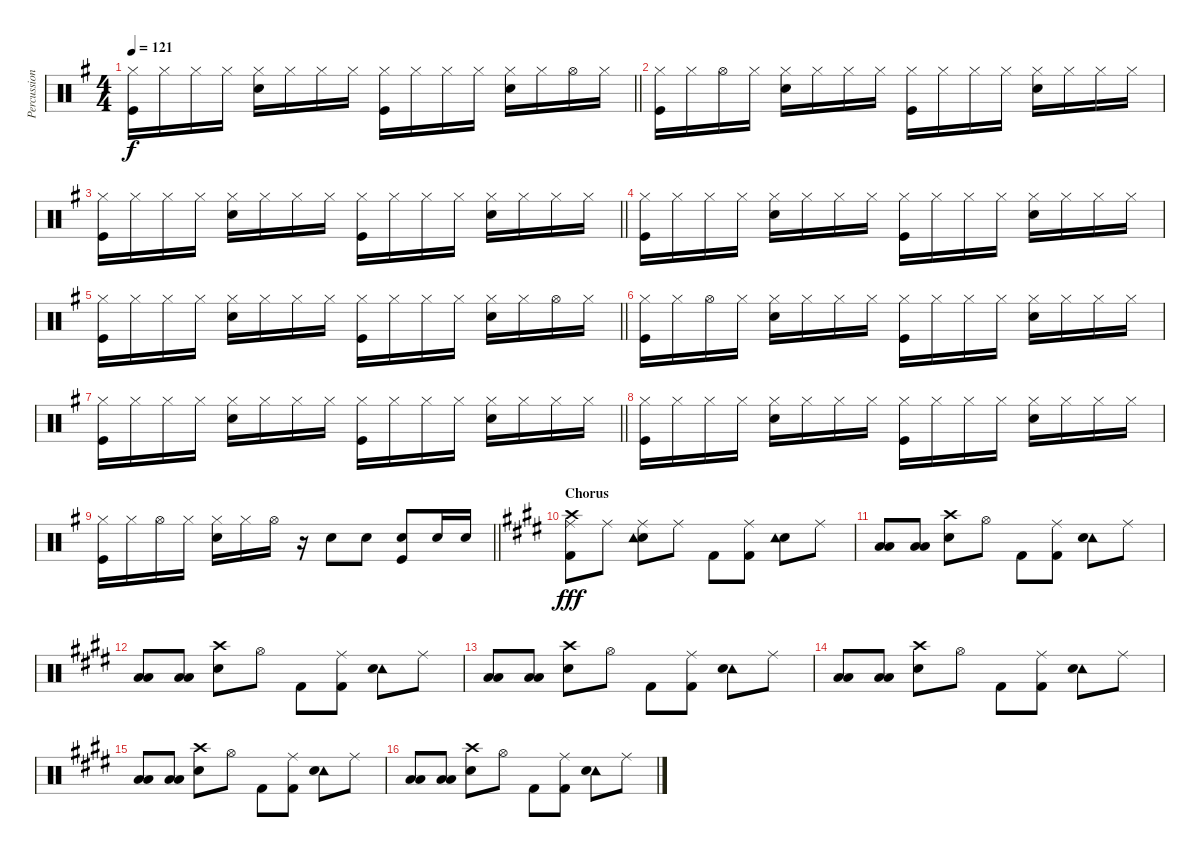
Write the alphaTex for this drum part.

\track ("Percussion" "Percussion") {instrument percussion}
\staff {score}
\articulation defaults
\ts (4 4)
\tempo 121
\clef neutral
\barLineRight lightlight
\ks g
("Hi-Hat (closed)" "Kick (hit)").16{dy f} "Hi-Hat (closed)".16 "Hi-Hat (closed)".16 "Hi-Hat (closed)".16 ("Hi-Hat (closed)" "Snare (hit) 2").16 "Hi-Hat (closed)".16 "Hi-Hat (closed)".16 "Hi-Hat (closed)".16 ("Hi-Hat (closed)" "Kick (hit)").16 "Hi-Hat (closed)".16 "Hi-Hat (closed)".16 "Hi-Hat (closed)".16 ("Hi-Hat (closed)" "Snare (hit) 2").16 "Hi-Hat (closed)".16 "Hi-Hat (open)".16 "Hi-Hat (closed)".16 |
("Hi-Hat (closed)" "Kick (hit)").16 "Hi-Hat (closed)".16 "Hi-Hat (open)".16 "Hi-Hat (closed)".16 ("Hi-Hat (closed)" "Snare (hit) 2").16 "Hi-Hat (closed)".16 "Hi-Hat (closed)".16 "Hi-Hat (closed)".16 ("Hi-Hat (closed)" "Kick (hit)").16 "Hi-Hat (closed)".16 "Hi-Hat (closed)".16 "Hi-Hat (closed)".16 ("Hi-Hat (closed)" "Snare (hit) 2").16 "Hi-Hat (closed)".16 "Hi-Hat (closed)".16 "Hi-Hat (closed)".16 |
\barLineRight lightlight
("Hi-Hat (closed)" "Kick (hit)").16 "Hi-Hat (closed)".16 "Hi-Hat (closed)".16 "Hi-Hat (closed)".16 ("Hi-Hat (closed)" "Snare (hit) 2").16 "Hi-Hat (closed)".16 "Hi-Hat (closed)".16 "Hi-Hat (closed)".16 ("Hi-Hat (closed)" "Kick (hit)").16 "Hi-Hat (closed)".16 "Hi-Hat (closed)".16 "Hi-Hat (closed)".16 ("Hi-Hat (closed)" "Snare (hit) 2").16 "Hi-Hat (closed)".16 "Hi-Hat (closed)".16 "Hi-Hat (closed)".16 |
("Hi-Hat (closed)" "Kick (hit)").16 "Hi-Hat (closed)".16 "Hi-Hat (closed)".16 "Hi-Hat (closed)".16 ("Hi-Hat (closed)" "Snare (hit) 2").16 "Hi-Hat (closed)".16 "Hi-Hat (closed)".16 "Hi-Hat (closed)".16 ("Hi-Hat (closed)" "Kick (hit)").16 "Hi-Hat (closed)".16 "Hi-Hat (closed)".16 "Hi-Hat (closed)".16 ("Hi-Hat (closed)" "Snare (hit) 2").16 "Hi-Hat (closed)".16 "Hi-Hat (closed)".16 "Hi-Hat (closed)".16 |
\barLineRight lightlight
("Hi-Hat (closed)" "Kick (hit)").16 "Hi-Hat (closed)".16 "Hi-Hat (closed)".16 "Hi-Hat (closed)".16 ("Hi-Hat (closed)" "Snare (hit) 2").16 "Hi-Hat (closed)".16 "Hi-Hat (closed)".16 "Hi-Hat (closed)".16 ("Hi-Hat (closed)" "Kick (hit)").16 "Hi-Hat (closed)".16 "Hi-Hat (closed)".16 "Hi-Hat (closed)".16 ("Hi-Hat (closed)" "Snare (hit) 2").16 "Hi-Hat (closed)".16 "Hi-Hat (open)".16 "Hi-Hat (closed)".16 |
("Hi-Hat (closed)" "Kick (hit)").16 "Hi-Hat (closed)".16 "Hi-Hat (open)".16 "Hi-Hat (closed)".16 ("Hi-Hat (closed)" "Snare (hit) 2").16 "Hi-Hat (closed)".16 "Hi-Hat (closed)".16 "Hi-Hat (closed)".16 ("Hi-Hat (closed)" "Kick (hit)").16 "Hi-Hat (closed)".16 "Hi-Hat (closed)".16 "Hi-Hat (closed)".16 ("Hi-Hat (closed)" "Snare (hit) 2").16 "Hi-Hat (closed)".16 "Hi-Hat (closed)".16 "Hi-Hat (closed)".16 |
\barLineRight lightlight
("Hi-Hat (closed)" "Kick (hit)").16 "Hi-Hat (closed)".16 "Hi-Hat (closed)".16 "Hi-Hat (closed)".16 ("Hi-Hat (closed)" "Snare (hit) 2").16 "Hi-Hat (closed)".16 "Hi-Hat (closed)".16 "Hi-Hat (closed)".16 ("Hi-Hat (closed)" "Kick (hit)").16 "Hi-Hat (closed)".16 "Hi-Hat (closed)".16 "Hi-Hat (closed)".16 ("Hi-Hat (closed)" "Snare (hit) 2").16 "Hi-Hat (closed)".16 "Hi-Hat (closed)".16 "Hi-Hat (closed)".16 |
("Hi-Hat (closed)" "Kick (hit)").16 "Hi-Hat (closed)".16 "Hi-Hat (closed)".16 "Hi-Hat (closed)".16 ("Hi-Hat (closed)" "Snare (hit) 2").16 "Hi-Hat (closed)".16 "Hi-Hat (closed)".16 "Hi-Hat (closed)".16 ("Hi-Hat (closed)" "Kick (hit)").16 "Hi-Hat (closed)".16 "Hi-Hat (closed)".16 "Hi-Hat (closed)".16 ("Hi-Hat (closed)" "Snare (hit) 2").16 "Hi-Hat (closed)".16 "Hi-Hat (closed)".16 "Hi-Hat (closed)".16 |
\barLineRight lightlight
("Hi-Hat (closed)" "Kick (hit)").16 "Hi-Hat (closed)".16 "Hi-Hat (open)".16 "Hi-Hat (closed)".16 ("Hi-Hat (closed)" "Snare (hit) 2").16 "Hi-Hat (closed)".16 "Hi-Hat (open)".16 r.16 "Snare (hit) 2".8 "Snare (hit) 2".8 ("Kick (hit)" "Snare (hit) 2").8 "Snare (hit) 2".16 "Snare (hit) 2".16 |
\section ("" "Chorus")
\ks e
("Ride (middle)" "Crash high (hit)" "Kick (hit) 2").8{dy fff} "Ride (middle)".8 ("Ride (middle)" "Snare (hit) 2" "Tambourine (hit)").8 "Ride (middle)".8 "Kick (hit) 2".8 ("Ride (middle)" "Kick (hit) 2").8 ("Snare (hit) 2" "Tambourine (hit)").8 "Ride (middle)".8 |
("Low Tom (hit)" "Low Floor Tom (hit)").8 ("Low Tom (hit)" "Low Floor Tom (hit)").8 ("Crash high (hit)" "Snare (hit) 2").8 "Hi-Hat (open)".8 "Kick (hit) 2".8 ("Ride (middle)" "Kick (hit) 2").8 ("Tambourine (hit)" "Snare (hit) 2").8 "Ride (middle)".8 |
("Low Tom (hit)" "Low Floor Tom (hit)").8 ("Low Tom (hit)" "Low Floor Tom (hit)").8 ("Crash high (hit)" "Snare (hit) 2").8 "Hi-Hat (open)".8 "Kick (hit) 2".8 ("Ride (middle)" "Kick (hit) 2").8 ("Tambourine (hit)" "Snare (hit) 2").8 "Ride (middle)".8 |
("Low Tom (hit)" "Low Floor Tom (hit)").8 ("Low Tom (hit)" "Low Floor Tom (hit)").8 ("Crash high (hit)" "Snare (hit) 2").8 "Hi-Hat (open)".8 "Kick (hit) 2".8 ("Ride (middle)" "Kick (hit) 2").8 ("Tambourine (hit)" "Snare (hit) 2").8 "Ride (middle)".8 |
("Low Tom (hit)" "Low Floor Tom (hit)").8 ("Low Tom (hit)" "Low Floor Tom (hit)").8 ("Crash high (hit)" "Snare (hit) 2").8 "Hi-Hat (open)".8 "Kick (hit) 2".8 ("Ride (middle)" "Kick (hit) 2").8 ("Tambourine (hit)" "Snare (hit) 2").8 "Ride (middle)".8 |
("Low Tom (hit)" "Low Floor Tom (hit)").8 ("Low Tom (hit)" "Low Floor Tom (hit)").8 ("Crash high (hit)" "Snare (hit) 2").8 "Hi-Hat (open)".8 "Kick (hit) 2".8 ("Ride (middle)" "Kick (hit) 2").8 ("Tambourine (hit)" "Snare (hit) 2").8 "Ride (middle)".8 |
("Low Tom (hit)" "Low Floor Tom (hit)").8 ("Low Tom (hit)" "Low Floor Tom (hit)").8 ("Crash high (hit)" "Snare (hit) 2").8 "Hi-Hat (open)".8 "Kick (hit) 2".8 ("Ride (middle)" "Kick (hit) 2").8 ("Tambourine (hit)" "Snare (hit) 2").8 "Ride (middle)".8
